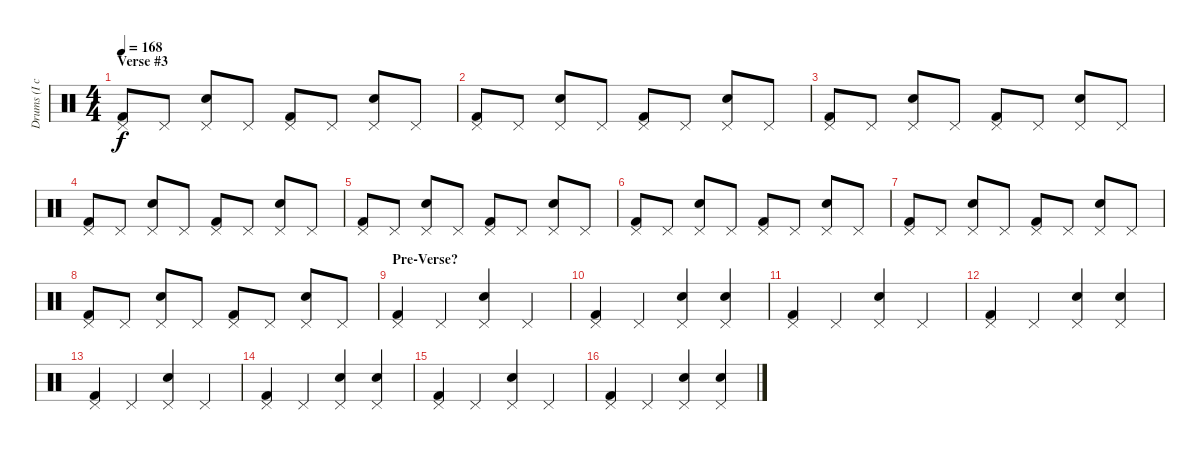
\track ("Drums (I can't tab drums too well...)" "Drums (I c") {instrument percussion}
\staff {score}
\articulation defaults
\ts (4 4)
\section ("" "Verse #3")
\tempo 168
\clef neutral
\ks c
("Pedal Hi-Hat (hit)" "Kick (hit) 2").8{dy f} "Pedal Hi-Hat (hit)".8 ("Pedal Hi-Hat (hit)" "Snare (hit) 2").8 "Pedal Hi-Hat (hit)".8 ("Pedal Hi-Hat (hit)" "Kick (hit) 2").8 "Pedal Hi-Hat (hit)".8 ("Pedal Hi-Hat (hit)" "Snare (hit) 2").8 "Pedal Hi-Hat (hit)".8 |
("Pedal Hi-Hat (hit)" "Kick (hit) 2").8 "Pedal Hi-Hat (hit)".8 ("Pedal Hi-Hat (hit)" "Snare (hit) 2").8 "Pedal Hi-Hat (hit)".8 ("Pedal Hi-Hat (hit)" "Kick (hit) 2").8 "Pedal Hi-Hat (hit)".8 ("Pedal Hi-Hat (hit)" "Snare (hit) 2").8 "Pedal Hi-Hat (hit)".8 |
("Pedal Hi-Hat (hit)" "Kick (hit) 2").8 "Pedal Hi-Hat (hit)".8 ("Pedal Hi-Hat (hit)" "Snare (hit) 2").8 "Pedal Hi-Hat (hit)".8 ("Pedal Hi-Hat (hit)" "Kick (hit) 2").8 "Pedal Hi-Hat (hit)".8 ("Pedal Hi-Hat (hit)" "Snare (hit) 2").8 "Pedal Hi-Hat (hit)".8 |
("Pedal Hi-Hat (hit)" "Kick (hit) 2").8 "Pedal Hi-Hat (hit)".8 ("Pedal Hi-Hat (hit)" "Snare (hit) 2").8 "Pedal Hi-Hat (hit)".8 ("Pedal Hi-Hat (hit)" "Kick (hit) 2").8 "Pedal Hi-Hat (hit)".8 ("Pedal Hi-Hat (hit)" "Snare (hit) 2").8 "Pedal Hi-Hat (hit)".8 |
("Pedal Hi-Hat (hit)" "Kick (hit) 2").8 "Pedal Hi-Hat (hit)".8 ("Pedal Hi-Hat (hit)" "Snare (hit) 2").8 "Pedal Hi-Hat (hit)".8 ("Pedal Hi-Hat (hit)" "Kick (hit) 2").8 "Pedal Hi-Hat (hit)".8 ("Pedal Hi-Hat (hit)" "Snare (hit) 2").8 "Pedal Hi-Hat (hit)".8 |
("Pedal Hi-Hat (hit)" "Kick (hit) 2").8 "Pedal Hi-Hat (hit)".8 ("Pedal Hi-Hat (hit)" "Snare (hit) 2").8 "Pedal Hi-Hat (hit)".8 ("Pedal Hi-Hat (hit)" "Kick (hit) 2").8 "Pedal Hi-Hat (hit)".8 ("Pedal Hi-Hat (hit)" "Snare (hit) 2").8 "Pedal Hi-Hat (hit)".8 |
("Pedal Hi-Hat (hit)" "Kick (hit) 2").8 "Pedal Hi-Hat (hit)".8 ("Pedal Hi-Hat (hit)" "Snare (hit) 2").8 "Pedal Hi-Hat (hit)".8 ("Pedal Hi-Hat (hit)" "Kick (hit) 2").8 "Pedal Hi-Hat (hit)".8 ("Pedal Hi-Hat (hit)" "Snare (hit) 2").8 "Pedal Hi-Hat (hit)".8 |
("Pedal Hi-Hat (hit)" "Kick (hit) 2").8 "Pedal Hi-Hat (hit)".8 ("Pedal Hi-Hat (hit)" "Snare (hit) 2").8 "Pedal Hi-Hat (hit)".8 ("Pedal Hi-Hat (hit)" "Kick (hit) 2").8 "Pedal Hi-Hat (hit)".8 ("Pedal Hi-Hat (hit)" "Snare (hit) 2").8 "Pedal Hi-Hat (hit)".8 |
\section ("" "Pre-Verse?")
("Pedal Hi-Hat (hit)" "Kick (hit) 2").4 "Pedal Hi-Hat (hit)".4 ("Pedal Hi-Hat (hit)" "Snare (hit) 2").4 "Pedal Hi-Hat (hit)".4 |
("Pedal Hi-Hat (hit)" "Kick (hit) 2").4 "Pedal Hi-Hat (hit)".4 ("Pedal Hi-Hat (hit)" "Snare (hit) 2").4 ("Pedal Hi-Hat (hit)" "Snare (hit) 2").4 |
("Pedal Hi-Hat (hit)" "Kick (hit) 2").4 "Pedal Hi-Hat (hit)".4 ("Pedal Hi-Hat (hit)" "Snare (hit) 2").4 "Pedal Hi-Hat (hit)".4 |
("Pedal Hi-Hat (hit)" "Kick (hit) 2").4 "Pedal Hi-Hat (hit)".4 ("Pedal Hi-Hat (hit)" "Snare (hit) 2").4 ("Pedal Hi-Hat (hit)" "Snare (hit) 2").4 |
("Pedal Hi-Hat (hit)" "Kick (hit) 2").4 "Pedal Hi-Hat (hit)".4 ("Pedal Hi-Hat (hit)" "Snare (hit) 2").4 "Pedal Hi-Hat (hit)".4 |
("Pedal Hi-Hat (hit)" "Kick (hit) 2").4 "Pedal Hi-Hat (hit)".4 ("Pedal Hi-Hat (hit)" "Snare (hit) 2").4 ("Pedal Hi-Hat (hit)" "Snare (hit) 2").4 |
("Pedal Hi-Hat (hit)" "Kick (hit) 2").4 "Pedal Hi-Hat (hit)".4 ("Pedal Hi-Hat (hit)" "Snare (hit) 2").4 "Pedal Hi-Hat (hit)".4 |
("Pedal Hi-Hat (hit)" "Kick (hit) 2").4 "Pedal Hi-Hat (hit)".4 ("Pedal Hi-Hat (hit)" "Snare (hit) 2").4 ("Pedal Hi-Hat (hit)" "Snare (hit) 2").4
